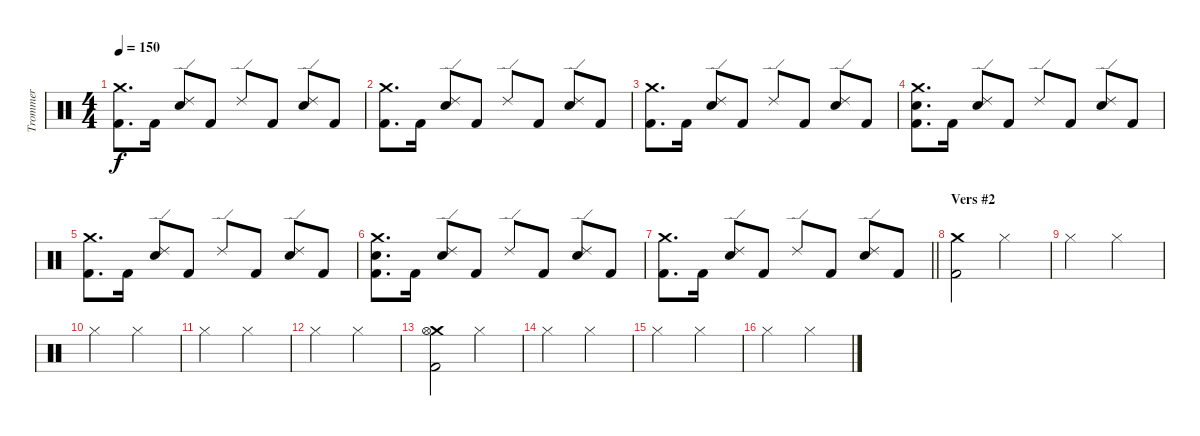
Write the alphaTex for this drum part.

\track ("Trommer" "Trommer") {instrument percussion}
\staff {score}
\articulation defaults
\ts (4 4)
\tempo 150
\clef neutral
\ks c
("Crash medium (hit)" "Kick (hit) 2").8{d dy f} "Kick (hit) 2".16 ("Ride (edge) 2" "Snare (hit) 2").8 "Kick (hit) 2".8 "Ride (edge) 2".8 "Kick (hit) 2".8 ("Ride (edge) 2" "Snare (hit) 2").8 "Kick (hit) 2".8 |
("Crash medium (hit)" "Kick (hit) 2").8{d} "Kick (hit) 2".16 ("Ride (edge) 2" "Snare (hit) 2").8 "Kick (hit) 2".8 "Ride (edge) 2".8 "Kick (hit) 2".8 ("Ride (edge) 2" "Snare (hit) 2").8 "Kick (hit) 2".8 |
("Crash medium (hit)" "Kick (hit) 2").8{d} "Kick (hit) 2".16 ("Ride (edge) 2" "Snare (hit) 2").8 "Kick (hit) 2".8 "Ride (edge) 2".8 "Kick (hit) 2".8 ("Ride (edge) 2" "Snare (hit) 2").8 "Kick (hit) 2".8 |
("Crash medium (hit)" "Snare (hit) 2" "Kick (hit) 2").8{d} "Kick (hit) 2".16 ("Ride (edge) 2" "Snare (hit) 2").8 "Kick (hit) 2".8 "Ride (edge) 2".8 "Kick (hit) 2".8 ("Ride (edge) 2" "Snare (hit) 2").8 "Kick (hit) 2".8 |
("Crash medium (hit)" "Kick (hit) 2").8{d} "Kick (hit) 2".16 ("Ride (edge) 2" "Snare (hit) 2").8 "Kick (hit) 2".8 "Ride (edge) 2".8 "Kick (hit) 2".8 ("Ride (edge) 2" "Snare (hit) 2").8 "Kick (hit) 2".8 |
("Crash medium (hit)" "Snare (hit) 2" "Kick (hit) 2").8{d} "Kick (hit) 2".16 ("Ride (edge) 2" "Snare (hit) 2").8 "Kick (hit) 2".8 "Ride (edge) 2".8 "Kick (hit) 2".8 ("Ride (edge) 2" "Snare (hit) 2").8 "Kick (hit) 2".8 |
\barLineRight lightlight
("Crash medium (hit)" "Kick (hit) 2").8{d} "Kick (hit) 2".16 ("Ride (edge) 2" "Snare (hit) 2").8 "Kick (hit) 2".8 "Ride (edge) 2".8 "Kick (hit) 2".8 ("Ride (edge) 2" "Snare (hit) 2").8 "Kick (hit) 2".8 |
\section ("" "Vers #2")
("Crash medium (hit)" "Kick (hit) 2").2 "Hi-Hat (closed)".2 |
"Hi-Hat (closed)".2 "Hi-Hat (closed)".2 |
"Hi-Hat (closed)".2 "Hi-Hat (closed)".2 |
"Hi-Hat (closed)".2 "Hi-Hat (closed)".2 |
"Hi-Hat (closed)".2 "Hi-Hat (closed)".2 |
("Crash medium (hit)" "Hi-Hat (open)" "Kick (hit) 2").2 "Hi-Hat (closed)".2 |
"Hi-Hat (closed)".2 "Hi-Hat (closed)".2 |
"Hi-Hat (closed)".2 "Hi-Hat (closed)".2 |
"Hi-Hat (closed)".2 "Hi-Hat (closed)".2
